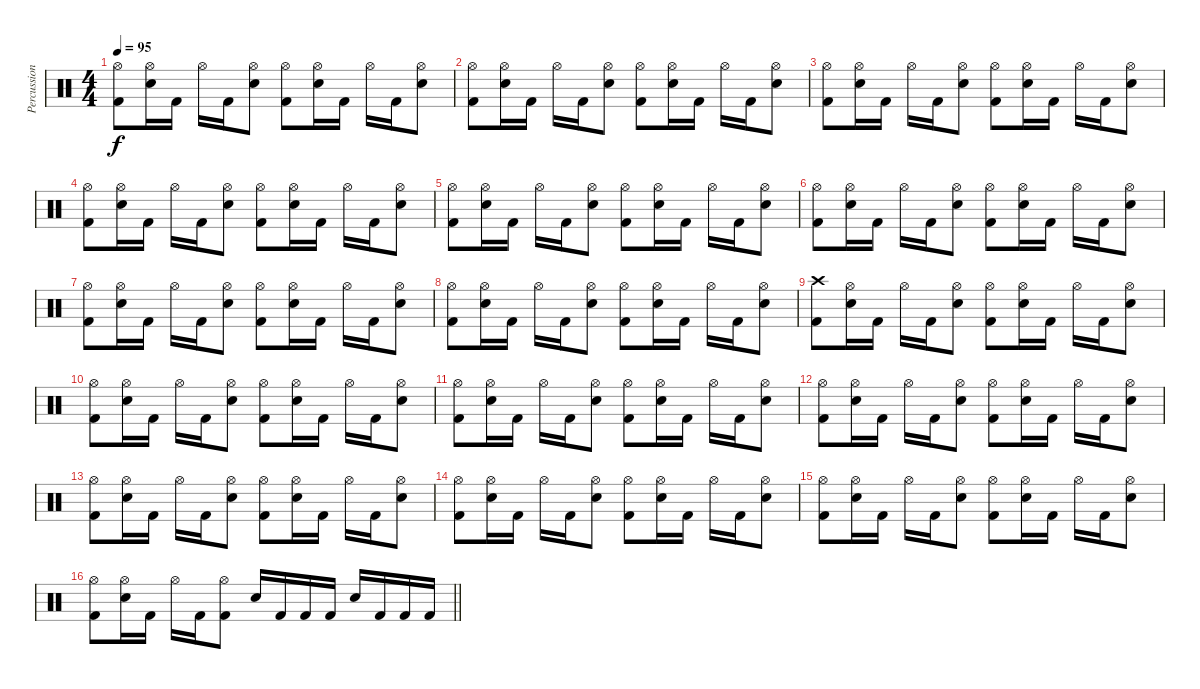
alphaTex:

\track ("Percussion" "Percussion") {instrument percussion}
\staff {score}
\articulation defaults
\ts (4 4)
\tempo 95
\clef neutral
\ks c
("Hi-Hat (open)" "Kick (hit) 2").8{dy f} ("Hi-Hat (open)" "Electric Snare (hit)").16 "Kick (hit) 2".16 "Hi-Hat (open)".16 "Kick (hit) 2".16 ("Hi-Hat (open)" "Electric Snare (hit)").8 ("Hi-Hat (open)" "Kick (hit) 2").8 ("Hi-Hat (open)" "Electric Snare (hit)").16 "Kick (hit) 2".16 "Hi-Hat (open)".16 "Kick (hit) 2".16 ("Hi-Hat (open)" "Electric Snare (hit)").8 |
("Hi-Hat (open)" "Kick (hit) 2").8 ("Hi-Hat (open)" "Electric Snare (hit)").16 "Kick (hit) 2".16 "Hi-Hat (open)".16 "Kick (hit) 2".16 ("Hi-Hat (open)" "Electric Snare (hit)").8 ("Hi-Hat (open)" "Kick (hit) 2").8 ("Hi-Hat (open)" "Electric Snare (hit)").16 "Kick (hit) 2".16 "Hi-Hat (open)".16 "Kick (hit) 2".16 ("Hi-Hat (open)" "Electric Snare (hit)").8 |
("Hi-Hat (open)" "Kick (hit) 2").8 ("Hi-Hat (open)" "Electric Snare (hit)").16 "Kick (hit) 2".16 "Hi-Hat (open)".16 "Kick (hit) 2".16 ("Hi-Hat (open)" "Electric Snare (hit)").8 ("Hi-Hat (open)" "Kick (hit) 2").8 ("Hi-Hat (open)" "Electric Snare (hit)").16 "Kick (hit) 2".16 "Hi-Hat (open)".16 "Kick (hit) 2".16 ("Hi-Hat (open)" "Electric Snare (hit)").8 |
("Hi-Hat (open)" "Kick (hit) 2").8 ("Hi-Hat (open)" "Electric Snare (hit)").16 "Kick (hit) 2".16 "Hi-Hat (open)".16 "Kick (hit) 2".16 ("Hi-Hat (open)" "Electric Snare (hit)").8 ("Hi-Hat (open)" "Kick (hit) 2").8 ("Hi-Hat (open)" "Electric Snare (hit)").16 "Kick (hit) 2".16 "Hi-Hat (open)".16 "Kick (hit) 2".16 ("Hi-Hat (open)" "Electric Snare (hit)").8 |
("Hi-Hat (open)" "Kick (hit) 2").8 ("Hi-Hat (open)" "Electric Snare (hit)").16 "Kick (hit) 2".16 "Hi-Hat (open)".16 "Kick (hit) 2".16 ("Hi-Hat (open)" "Electric Snare (hit)").8 ("Hi-Hat (open)" "Kick (hit) 2").8 ("Hi-Hat (open)" "Electric Snare (hit)").16 "Kick (hit) 2".16 "Hi-Hat (open)".16 "Kick (hit) 2".16 ("Hi-Hat (open)" "Electric Snare (hit)").8 |
("Hi-Hat (open)" "Kick (hit) 2").8 ("Hi-Hat (open)" "Electric Snare (hit)").16 "Kick (hit) 2".16 "Hi-Hat (open)".16 "Kick (hit) 2".16 ("Hi-Hat (open)" "Electric Snare (hit)").8 ("Hi-Hat (open)" "Kick (hit) 2").8 ("Hi-Hat (open)" "Electric Snare (hit)").16 "Kick (hit) 2".16 "Hi-Hat (open)".16 "Kick (hit) 2".16 ("Hi-Hat (open)" "Electric Snare (hit)").8 |
("Hi-Hat (open)" "Kick (hit) 2").8 ("Hi-Hat (open)" "Electric Snare (hit)").16 "Kick (hit) 2".16 "Hi-Hat (open)".16 "Kick (hit) 2".16 ("Hi-Hat (open)" "Electric Snare (hit)").8 ("Hi-Hat (open)" "Kick (hit) 2").8 ("Hi-Hat (open)" "Electric Snare (hit)").16 "Kick (hit) 2".16 "Hi-Hat (open)".16 "Kick (hit) 2".16 ("Hi-Hat (open)" "Electric Snare (hit)").8 |
("Hi-Hat (open)" "Kick (hit) 2").8 ("Hi-Hat (open)" "Electric Snare (hit)").16 "Kick (hit) 2".16 "Hi-Hat (open)".16 "Kick (hit) 2".16 ("Hi-Hat (open)" "Electric Snare (hit)").8 ("Hi-Hat (open)" "Kick (hit) 2").8 ("Hi-Hat (open)" "Electric Snare (hit)").16 "Kick (hit) 2".16 "Hi-Hat (open)".16 "Kick (hit) 2".16 ("Hi-Hat (open)" "Electric Snare (hit)").8 |
("Crash high (hit)" "Kick (hit) 2").8 ("Hi-Hat (open)" "Electric Snare (hit)").16 "Kick (hit) 2".16 "Hi-Hat (open)".16 "Kick (hit) 2".16 ("Hi-Hat (open)" "Electric Snare (hit)").8 ("Hi-Hat (open)" "Kick (hit) 2").8 ("Hi-Hat (open)" "Electric Snare (hit)").16 "Kick (hit) 2".16 "Hi-Hat (open)".16 "Kick (hit) 2".16 ("Hi-Hat (open)" "Electric Snare (hit)").8 |
("Hi-Hat (open)" "Kick (hit) 2").8 ("Hi-Hat (open)" "Electric Snare (hit)").16 "Kick (hit) 2".16 "Hi-Hat (open)".16 "Kick (hit) 2".16 ("Hi-Hat (open)" "Electric Snare (hit)").8 ("Hi-Hat (open)" "Kick (hit) 2").8 ("Hi-Hat (open)" "Electric Snare (hit)").16 "Kick (hit) 2".16 "Hi-Hat (open)".16 "Kick (hit) 2".16 ("Hi-Hat (open)" "Electric Snare (hit)").8 |
("Hi-Hat (open)" "Kick (hit) 2").8 ("Hi-Hat (open)" "Electric Snare (hit)").16 "Kick (hit) 2".16 "Hi-Hat (open)".16 "Kick (hit) 2".16 ("Hi-Hat (open)" "Electric Snare (hit)").8 ("Hi-Hat (open)" "Kick (hit) 2").8 ("Hi-Hat (open)" "Electric Snare (hit)").16 "Kick (hit) 2".16 "Hi-Hat (open)".16 "Kick (hit) 2".16 ("Hi-Hat (open)" "Electric Snare (hit)").8 |
("Hi-Hat (open)" "Kick (hit) 2").8 ("Hi-Hat (open)" "Electric Snare (hit)").16 "Kick (hit) 2".16 "Hi-Hat (open)".16 "Kick (hit) 2".16 ("Hi-Hat (open)" "Electric Snare (hit)").8 ("Hi-Hat (open)" "Kick (hit) 2").8 ("Hi-Hat (open)" "Electric Snare (hit)").16 "Kick (hit) 2".16 "Hi-Hat (open)".16 "Kick (hit) 2".16 ("Hi-Hat (open)" "Electric Snare (hit)").8 |
("Hi-Hat (open)" "Kick (hit) 2").8 ("Hi-Hat (open)" "Electric Snare (hit)").16 "Kick (hit) 2".16 "Hi-Hat (open)".16 "Kick (hit) 2".16 ("Hi-Hat (open)" "Electric Snare (hit)").8 ("Hi-Hat (open)" "Kick (hit) 2").8 ("Hi-Hat (open)" "Electric Snare (hit)").16 "Kick (hit) 2".16 "Hi-Hat (open)".16 "Kick (hit) 2".16 ("Hi-Hat (open)" "Electric Snare (hit)").8 |
("Hi-Hat (open)" "Kick (hit) 2").8 ("Hi-Hat (open)" "Electric Snare (hit)").16 "Kick (hit) 2".16 "Hi-Hat (open)".16 "Kick (hit) 2".16 ("Hi-Hat (open)" "Electric Snare (hit)").8 ("Hi-Hat (open)" "Kick (hit) 2").8 ("Hi-Hat (open)" "Electric Snare (hit)").16 "Kick (hit) 2".16 "Hi-Hat (open)".16 "Kick (hit) 2".16 ("Hi-Hat (open)" "Electric Snare (hit)").8 |
("Hi-Hat (open)" "Kick (hit) 2").8 ("Hi-Hat (open)" "Electric Snare (hit)").16 "Kick (hit) 2".16 "Hi-Hat (open)".16 "Kick (hit) 2".16 ("Hi-Hat (open)" "Electric Snare (hit)").8 ("Hi-Hat (open)" "Kick (hit) 2").8 ("Hi-Hat (open)" "Electric Snare (hit)").16 "Kick (hit) 2".16 "Hi-Hat (open)".16 "Kick (hit) 2".16 ("Hi-Hat (open)" "Electric Snare (hit)").8 |
\barLineRight lightlight
("Hi-Hat (open)" "Kick (hit) 2").8 ("Hi-Hat (open)" "Electric Snare (hit)").16 "Kick (hit) 2".16 "Hi-Hat (open)".16 "Kick (hit) 2".16 ("Hi-Hat (open)" "Kick (hit) 2").8 "Electric Snare (hit)".16 "Kick (hit) 2".16 "Kick (hit) 2".16 "Kick (hit) 2".16 "Electric Snare (hit)".16 "Kick (hit) 2".16 "Kick (hit) 2".16 "Kick (hit) 2".16
